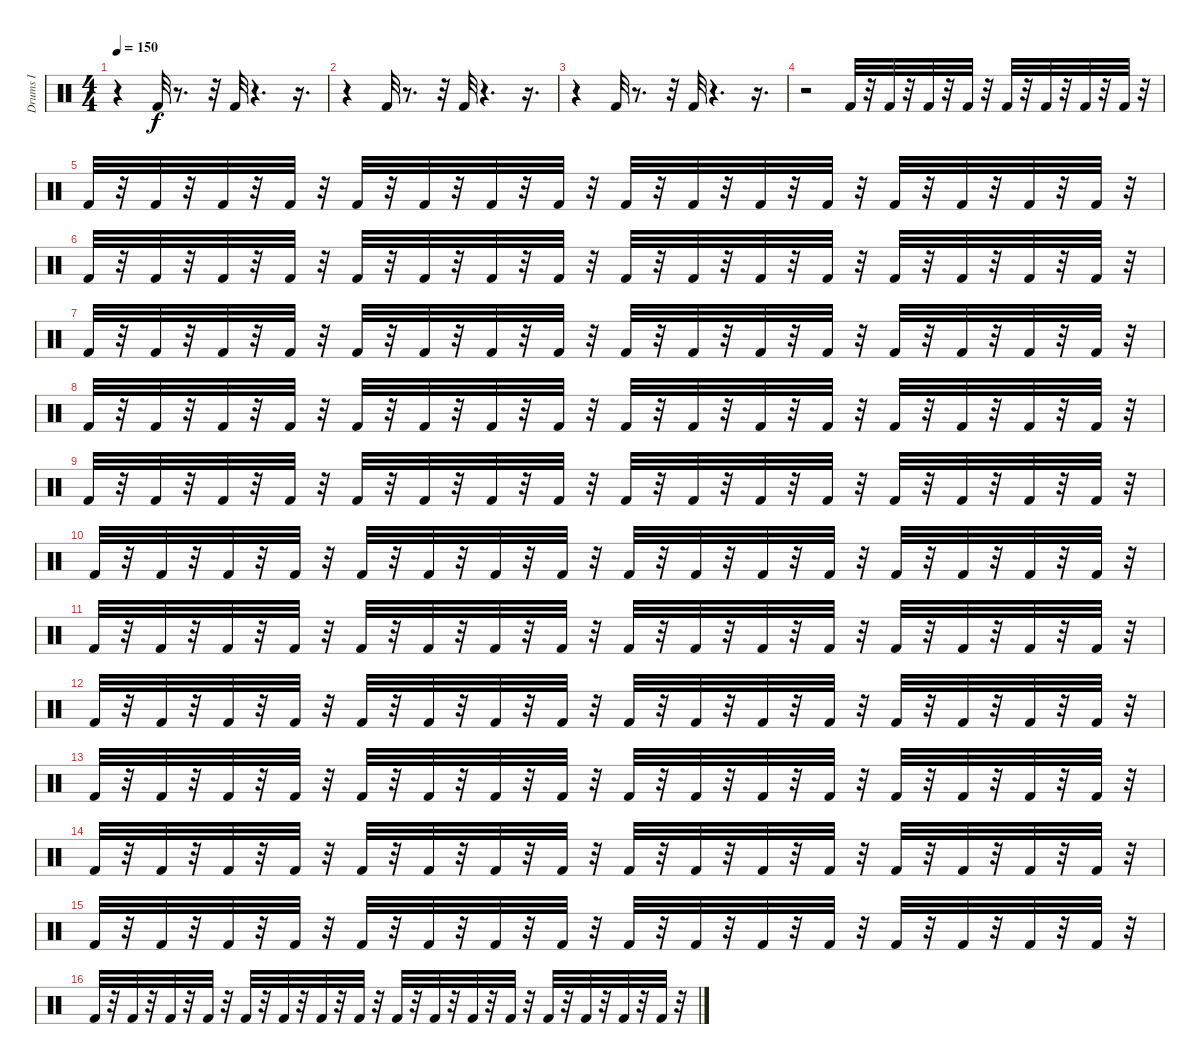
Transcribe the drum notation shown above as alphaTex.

\track ("Drums I" "Drums I") {instrument percussion}
\staff {score}
\articulation defaults
\ts (4 4)
\tempo 150
\clef neutral
\ks c
r.4{dy f} "Kick (hit) 2".32 r.8{d} r.32 "Kick (hit) 2".32 r.4{d} r.16{d} |
r.4 "Kick (hit) 2".32 r.8{d} r.32 "Kick (hit) 2".32 r.4{d} r.16{d} |
r.4 "Kick (hit) 2".32 r.8{d} r.32 "Kick (hit) 2".32 r.4{d} r.16{d} |
r.2 "Kick (hit) 2".32 r.32 "Kick (hit) 2".32 r.32 "Kick (hit) 2".32 r.32 "Kick (hit) 2".32 r.32 "Kick (hit) 2".32 r.32 "Kick (hit) 2".32 r.32 "Kick (hit) 2".32 r.32 "Kick (hit) 2".32 r.32 |
"Kick (hit) 2".32 r.32 "Kick (hit) 2".32 r.32 "Kick (hit) 2".32 r.32 "Kick (hit) 2".32 r.32 "Kick (hit) 2".32 r.32 "Kick (hit) 2".32 r.32 "Kick (hit) 2".32 r.32 "Kick (hit) 2".32 r.32 "Kick (hit) 2".32 r.32 "Kick (hit) 2".32 r.32 "Kick (hit) 2".32 r.32 "Kick (hit) 2".32 r.32 "Kick (hit) 2".32 r.32 "Kick (hit) 2".32 r.32 "Kick (hit) 2".32 r.32 "Kick (hit) 2".32 r.32 |
"Kick (hit) 2".32 r.32 "Kick (hit) 2".32 r.32 "Kick (hit) 2".32 r.32 "Kick (hit) 2".32 r.32 "Kick (hit) 2".32 r.32 "Kick (hit) 2".32 r.32 "Kick (hit) 2".32 r.32 "Kick (hit) 2".32 r.32 "Kick (hit) 2".32 r.32 "Kick (hit) 2".32 r.32 "Kick (hit) 2".32 r.32 "Kick (hit) 2".32 r.32 "Kick (hit) 2".32 r.32 "Kick (hit) 2".32 r.32 "Kick (hit) 2".32 r.32 "Kick (hit) 2".32 r.32 |
"Kick (hit) 2".32 r.32 "Kick (hit) 2".32 r.32 "Kick (hit) 2".32 r.32 "Kick (hit) 2".32 r.32 "Kick (hit) 2".32 r.32 "Kick (hit) 2".32 r.32 "Kick (hit) 2".32 r.32 "Kick (hit) 2".32 r.32 "Kick (hit) 2".32 r.32 "Kick (hit) 2".32 r.32 "Kick (hit) 2".32 r.32 "Kick (hit) 2".32 r.32 "Kick (hit) 2".32 r.32 "Kick (hit) 2".32 r.32 "Kick (hit) 2".32 r.32 "Kick (hit) 2".32 r.32 |
"Kick (hit) 2".32 r.32 "Kick (hit) 2".32 r.32 "Kick (hit) 2".32 r.32 "Kick (hit) 2".32 r.32 "Kick (hit) 2".32 r.32 "Kick (hit) 2".32 r.32 "Kick (hit) 2".32 r.32 "Kick (hit) 2".32 r.32 "Kick (hit) 2".32 r.32 "Kick (hit) 2".32 r.32 "Kick (hit) 2".32 r.32 "Kick (hit) 2".32 r.32 "Kick (hit) 2".32 r.32 "Kick (hit) 2".32 r.32 "Kick (hit) 2".32 r.32 "Kick (hit) 2".32 r.32 |
"Kick (hit) 2".32 r.32 "Kick (hit) 2".32 r.32 "Kick (hit) 2".32 r.32 "Kick (hit) 2".32 r.32 "Kick (hit) 2".32 r.32 "Kick (hit) 2".32 r.32 "Kick (hit) 2".32 r.32 "Kick (hit) 2".32 r.32 "Kick (hit) 2".32 r.32 "Kick (hit) 2".32 r.32 "Kick (hit) 2".32 r.32 "Kick (hit) 2".32 r.32 "Kick (hit) 2".32 r.32 "Kick (hit) 2".32 r.32 "Kick (hit) 2".32 r.32 "Kick (hit) 2".32 r.32 |
"Kick (hit) 2".32 r.32 "Kick (hit) 2".32 r.32 "Kick (hit) 2".32 r.32 "Kick (hit) 2".32 r.32 "Kick (hit) 2".32 r.32 "Kick (hit) 2".32 r.32 "Kick (hit) 2".32 r.32 "Kick (hit) 2".32 r.32 "Kick (hit) 2".32 r.32 "Kick (hit) 2".32 r.32 "Kick (hit) 2".32 r.32 "Kick (hit) 2".32 r.32 "Kick (hit) 2".32 r.32 "Kick (hit) 2".32 r.32 "Kick (hit) 2".32 r.32 "Kick (hit) 2".32 r.32 |
"Kick (hit) 2".32 r.32 "Kick (hit) 2".32 r.32 "Kick (hit) 2".32 r.32 "Kick (hit) 2".32 r.32 "Kick (hit) 2".32 r.32 "Kick (hit) 2".32 r.32 "Kick (hit) 2".32 r.32 "Kick (hit) 2".32 r.32 "Kick (hit) 2".32 r.32 "Kick (hit) 2".32 r.32 "Kick (hit) 2".32 r.32 "Kick (hit) 2".32 r.32 "Kick (hit) 2".32 r.32 "Kick (hit) 2".32 r.32 "Kick (hit) 2".32 r.32 "Kick (hit) 2".32 r.32 |
"Kick (hit) 2".32 r.32 "Kick (hit) 2".32 r.32 "Kick (hit) 2".32 r.32 "Kick (hit) 2".32 r.32 "Kick (hit) 2".32 r.32 "Kick (hit) 2".32 r.32 "Kick (hit) 2".32 r.32 "Kick (hit) 2".32 r.32 "Kick (hit) 2".32 r.32 "Kick (hit) 2".32 r.32 "Kick (hit) 2".32 r.32 "Kick (hit) 2".32 r.32 "Kick (hit) 2".32 r.32 "Kick (hit) 2".32 r.32 "Kick (hit) 2".32 r.32 "Kick (hit) 2".32 r.32 |
"Kick (hit) 2".32 r.32 "Kick (hit) 2".32 r.32 "Kick (hit) 2".32 r.32 "Kick (hit) 2".32 r.32 "Kick (hit) 2".32 r.32 "Kick (hit) 2".32 r.32 "Kick (hit) 2".32 r.32 "Kick (hit) 2".32 r.32 "Kick (hit) 2".32 r.32 "Kick (hit) 2".32 r.32 "Kick (hit) 2".32 r.32 "Kick (hit) 2".32 r.32 "Kick (hit) 2".32 r.32 "Kick (hit) 2".32 r.32 "Kick (hit) 2".32 r.32 "Kick (hit) 2".32 r.32 |
"Kick (hit) 2".32 r.32 "Kick (hit) 2".32 r.32 "Kick (hit) 2".32 r.32 "Kick (hit) 2".32 r.32 "Kick (hit) 2".32 r.32 "Kick (hit) 2".32 r.32 "Kick (hit) 2".32 r.32 "Kick (hit) 2".32 r.32 "Kick (hit) 2".32 r.32 "Kick (hit) 2".32 r.32 "Kick (hit) 2".32 r.32 "Kick (hit) 2".32 r.32 "Kick (hit) 2".32 r.32 "Kick (hit) 2".32 r.32 "Kick (hit) 2".32 r.32 "Kick (hit) 2".32 r.32 |
"Kick (hit) 2".32 r.32 "Kick (hit) 2".32 r.32 "Kick (hit) 2".32 r.32 "Kick (hit) 2".32 r.32 "Kick (hit) 2".32 r.32 "Kick (hit) 2".32 r.32 "Kick (hit) 2".32 r.32 "Kick (hit) 2".32 r.32 "Kick (hit) 2".32 r.32 "Kick (hit) 2".32 r.32 "Kick (hit) 2".32 r.32 "Kick (hit) 2".32 r.32 "Kick (hit) 2".32 r.32 "Kick (hit) 2".32 r.32 "Kick (hit) 2".32 r.32 "Kick (hit) 2".32 r.32 |
"Kick (hit) 2".32 r.32 "Kick (hit) 2".32 r.32 "Kick (hit) 2".32 r.32 "Kick (hit) 2".32 r.32 "Kick (hit) 2".32 r.32 "Kick (hit) 2".32 r.32 "Kick (hit) 2".32 r.32 "Kick (hit) 2".32 r.32 "Kick (hit) 2".32 r.32 "Kick (hit) 2".32 r.32 "Kick (hit) 2".32 r.32 "Kick (hit) 2".32 r.32 "Kick (hit) 2".32 r.32 "Kick (hit) 2".32 r.32 "Kick (hit) 2".32 r.32 "Kick (hit) 2".32 r.32
